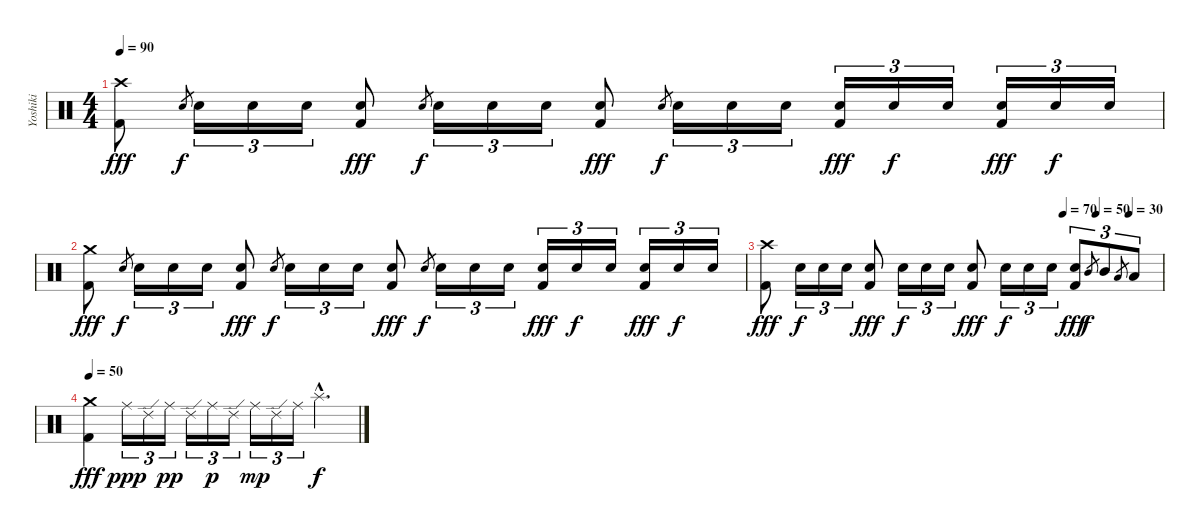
\track ("Yoshiki" "Yoshiki") {instrument percussion}
\staff {score}
\articulation defaults
\ts (4 4)
\tempo 90
\clef neutral
\ks c
("Crash high (hit)" "Kick (hit) 2").8{dy fff} "Snare (hit) 2".8{gr dy f} "Snare (hit) 2".16{tu (3 2)} "Snare (hit) 2".16{tu (3 2)} "Snare (hit) 2".16{tu (3 2)} ("Snare (hit) 2" "Kick (hit) 2").8{dy fff} "Snare (hit) 2".8{gr dy f} "Snare (hit) 2".16{tu (3 2)} "Snare (hit) 2".16{tu (3 2)} "Snare (hit) 2".16{tu (3 2)} ("Snare (hit) 2" "Kick (hit) 2").8{dy fff} "Snare (hit) 2".8{gr dy f} "Snare (hit) 2".16{tu (3 2)} "Snare (hit) 2".16{tu (3 2)} "Snare (hit) 2".16{tu (3 2)} ("Snare (hit) 2" "Kick (hit) 2").16{tu (3 2) dy fff} "Snare (hit) 2".16{tu (3 2) dy f} "Snare (hit) 2".16{tu (3 2)} ("Snare (hit) 2" "Kick (hit) 2").16{tu (3 2) dy fff} "Snare (hit) 2".16{tu (3 2) dy f} "Snare (hit) 2".16{tu (3 2)} |
("Crash medium (hit)" "Kick (hit) 2").8{dy fff} "Snare (hit) 2".8{gr dy f} "Snare (hit) 2".16{tu (3 2)} "Snare (hit) 2".16{tu (3 2)} "Snare (hit) 2".16{tu (3 2)} ("Snare (hit) 2" "Kick (hit) 2").8{dy fff} "Snare (hit) 2".8{gr dy f} "Snare (hit) 2".16{tu (3 2)} "Snare (hit) 2".16{tu (3 2)} "Snare (hit) 2".16{tu (3 2)} ("Snare (hit) 2" "Kick (hit) 2").8{dy fff} "Snare (hit) 2".8{gr dy f} "Snare (hit) 2".16{tu (3 2)} "Snare (hit) 2".16{tu (3 2)} "Snare (hit) 2".16{tu (3 2)} ("Snare (hit) 2" "Kick (hit) 2").16{tu (3 2) dy fff} "Snare (hit) 2".16{tu (3 2) dy f} "Snare (hit) 2".16{tu (3 2)} ("Snare (hit) 2" "Kick (hit) 2").16{tu (3 2) dy fff} "Snare (hit) 2".16{tu (3 2) dy f} "Snare (hit) 2".16{tu (3 2)} |
\tempo (70 0.75)
\tempo (50 0.8333333333333334)
\tempo (30 0.9166666666666666)
("Crash high (hit)" "Kick (hit) 2").8{dy fff} "Snare (hit) 2".16{tu (3 2) dy f} "Snare (hit) 2".16{tu (3 2)} "Snare (hit) 2".16{tu (3 2)} ("Snare (hit) 2" "Kick (hit) 2").8{dy fff} "Snare (hit) 2".16{tu (3 2) dy f} "Snare (hit) 2".16{tu (3 2)} "Snare (hit) 2".16{tu (3 2)} ("Snare (hit) 2" "Kick (hit) 2").8{dy fff} "Snare (hit) 2".16{tu (3 2) dy f} "Snare (hit) 2".16{tu (3 2)} "Snare (hit) 2".16{tu (3 2)} ("Snare (hit) 2" "Kick (hit) 2").8{tu (3 2) dy fff} "Mid Tom (hit)".8{gr dy f} "Mid Tom (hit)".8{tu (3 2)} "Low Tom (hit)".8{gr} "Low Tom (hit)".8{tu (3 2)} |
\tempo 50
("Crash medium (hit)" "Kick (hit) 2").4{dy fff} "Ride (middle)".16{tu (3 2) dy ppp} "Ride (edge) 2".16{tu (3 2)} "Ride (middle)".16{tu (3 2) dy pp} "Ride (edge) 2".16{tu (3 2)} "Ride (middle)".16{tu (3 2) dy p} "Ride (edge) 2".16{tu (3 2)} "Ride (middle)".16{tu (3 2) dy mp} "Ride (edge) 2".16{tu (3 2)} "Ride (middle)".16{tu (3 2)} "Splash (hit)"{hac}.4{d dy f}
